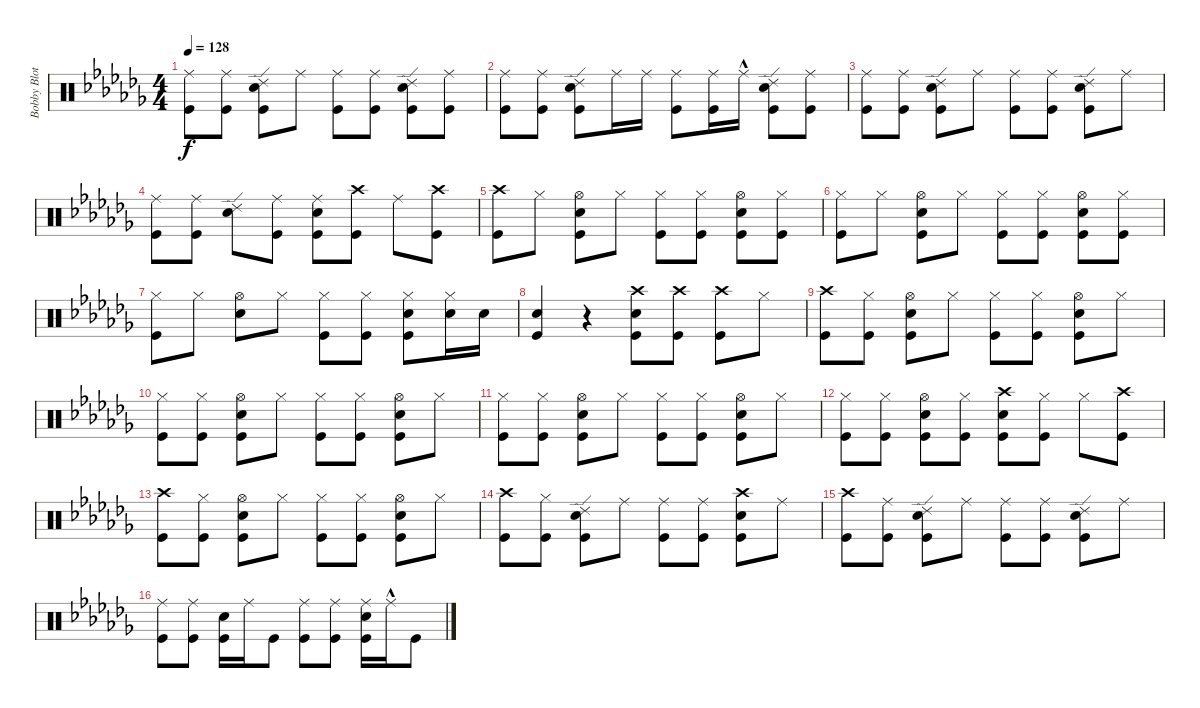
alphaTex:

\track ("Bobby Blotzer" "Bobby Blot") {instrument percussion}
\staff {score}
\articulation defaults
\ts (4 4)
\tempo 128
\clef neutral
\ks cb
("Ride (middle)" "Kick (hit)").8{dy f} ("Kick (hit)" "Ride (middle)").8 ("Kick (hit)" "Ride (edge) 2" "Snare (hit) 2").8 "Ride (middle)".8 ("Ride (middle)" "Kick (hit)").8 ("Kick (hit)" "Ride (middle)").8 ("Ride (edge) 2" "Kick (hit)" "Snare (hit) 2").8 ("Ride (middle)" "Kick (hit)").8 |
("Ride (middle)" "Kick (hit)").8 ("Kick (hit)" "Ride (middle)").8 ("Kick (hit)" "Ride (edge) 2" "Snare (hit) 2").8 "Ride (middle)".16 "Ride (middle)".16 ("Kick (hit)" "Ride (middle)").8 ("Kick (hit)" "Ride (middle)").16 "Ride (middle)"{hac}.16 ("Kick (hit)" "Ride (edge) 2" "Snare (hit) 2").8 ("Kick (hit)" "Ride (middle)").8 |
("Ride (middle)" "Kick (hit)").8 ("Kick (hit)" "Ride (middle)").8 ("Kick (hit)" "Ride (edge) 2" "Snare (hit) 2").8 "Ride (middle)".8 ("Ride (middle)" "Kick (hit)").8 ("Ride (middle)" "Kick (hit)").8 ("Kick (hit)" "Ride (edge) 2" "Snare (hit) 2").8 "Ride (middle)".8 |
("Kick (hit)" "Ride (middle)").8 ("Kick (hit)" "Ride (middle)").8 ("Ride (edge) 2" "Snare (hit) 2").8 ("Ride (middle)" "Kick (hit)").8 ("Snare (hit) 2" "Ride (middle)" "Kick (hit)").8 ("Kick (hit)" "Crash high (hit)").8 "Ride (middle)".8 ("Crash high (hit)" "Kick (hit)").8 |
("Crash high (hit)" "Kick (hit)").8 "Hi-Hat (closed)".8 ("Kick (hit)" "Hi-Hat (open)" "Snare (hit) 2").8 "Hi-Hat (closed)".8 ("Kick (hit)" "Hi-Hat (closed)").8 ("Hi-Hat (closed)" "Kick (hit)").8 ("Hi-Hat (open)" "Kick (hit)" "Snare (hit) 2").8 ("Hi-Hat (closed)" "Kick (hit)").8 |
("Hi-Hat (closed)" "Kick (hit)").8 "Hi-Hat (closed)".8 ("Hi-Hat (open)" "Kick (hit)" "Snare (hit) 2").8 "Hi-Hat (closed)".8 ("Hi-Hat (closed)" "Kick (hit)").8 ("Hi-Hat (closed)" "Kick (hit)").8 ("Hi-Hat (open)" "Kick (hit)" "Snare (hit) 2").8 ("Kick (hit)" "Hi-Hat (closed)").8 |
("Hi-Hat (closed)" "Kick (hit)").8 "Hi-Hat (closed)".8 ("Hi-Hat (open)" "Snare (hit) 2").8 "Hi-Hat (closed)".8 ("Kick (hit)" "Hi-Hat (closed)").8 ("Hi-Hat (closed)" "Kick (hit)").8 ("Kick (hit)" "Snare (hit) 2" "Hi-Hat (closed)").8 ("Hi-Hat (closed)" "Snare (hit) 2").16 "Snare (hit) 2".16 |
("Kick (hit)" "Snare (hit) 2").4 r.4 ("Kick (hit)" "Crash high (hit)" "Snare (hit) 2").8 ("Kick (hit)" "Crash high (hit)").8 ("Kick (hit)" "Crash high (hit)").8 "Hi-Hat (closed)".8 |
("Crash high (hit)" "Kick (hit)").8 ("Hi-Hat (closed)" "Kick (hit)").8 ("Kick (hit)" "Hi-Hat (open)" "Snare (hit) 2").8 "Hi-Hat (closed)".8 ("Kick (hit)" "Hi-Hat (closed)").8 ("Hi-Hat (closed)" "Kick (hit)").8 ("Hi-Hat (open)" "Snare (hit) 2" "Kick (hit)").8 "Hi-Hat (closed)".8 |
("Hi-Hat (closed)" "Kick (hit)").8 ("Hi-Hat (closed)" "Kick (hit)").8 ("Hi-Hat (open)" "Snare (hit) 2" "Kick (hit)").8 "Hi-Hat (closed)".8 ("Kick (hit)" "Hi-Hat (closed)").8 ("Kick (hit)" "Hi-Hat (closed)").8 ("Kick (hit)" "Hi-Hat (open)" "Snare (hit) 2").8 "Hi-Hat (closed)".8 |
("Hi-Hat (closed)" "Kick (hit)").8 ("Kick (hit)" "Hi-Hat (closed)").8 ("Snare (hit) 2" "Kick (hit)" "Hi-Hat (open)").8 "Hi-Hat (closed)".8 ("Hi-Hat (closed)" "Kick (hit)").8 ("Hi-Hat (closed)" "Kick (hit)").8 ("Hi-Hat (open)" "Kick (hit)" "Snare (hit) 2").8 "Hi-Hat (closed)".8 |
("Hi-Hat (closed)" "Kick (hit)").8 ("Hi-Hat (closed)" "Kick (hit)").8 ("Kick (hit)" "Hi-Hat (open)" "Snare (hit) 2").8 ("Hi-Hat (closed)" "Kick (hit)").8 ("Snare (hit) 2" "Crash high (hit)" "Kick (hit)").8 ("Hi-Hat (closed)" "Kick (hit)").8 "Hi-Hat (closed)".8 ("Kick (hit)" "Crash high (hit)").8 |
("Kick (hit)" "Crash high (hit)").8 ("Hi-Hat (closed)" "Kick (hit)").8 ("Snare (hit) 2" "Kick (hit)" "Hi-Hat (open)").8 "Hi-Hat (closed)".8 ("Kick (hit)" "Hi-Hat (closed)").8 ("Kick (hit)" "Hi-Hat (closed)").8 ("Hi-Hat (open)" "Kick (hit)" "Snare (hit) 2").8 "Hi-Hat (closed)".8 |
("Kick (hit)" "Crash high (hit)").8 ("Kick (hit)" "Hi-Hat (closed)").8 ("Kick (hit)" "Ride (edge) 2" "Snare (hit) 2").8 "Ride (middle)".8 ("Kick (hit)" "Ride (middle)").8 ("Kick (hit)" "Ride (middle)").8 ("Crash high (hit)" "Kick (hit)" "Snare (hit) 2").8 "Ride (middle)".8 |
("Kick (hit)" "Crash high (hit)").8 ("Kick (hit)" "Ride (middle)").8 ("Ride (edge) 2" "Kick (hit)" "Snare (hit) 2").8 "Ride (middle)".8 ("Kick (hit)" "Ride (middle)").8 ("Kick (hit)" "Ride (middle)").8 ("Ride (edge) 2" "Kick (hit)" "Snare (hit) 2").8 "Ride (middle)".8 |
("Ride (middle)" "Kick (hit)").8 ("Ride (middle)" "Kick (hit)").8 ("Kick (hit)" "Snare (hit) 2").16 "Ride (middle)".16 "Kick (hit)".8 ("Kick (hit)" "Ride (middle)").8 ("Kick (hit)" "Ride (middle)").8 ("Ride (middle)" "Kick (hit)" "Snare (hit) 2").16 "Ride (middle)"{hac}.16 "Kick (hit)".8
